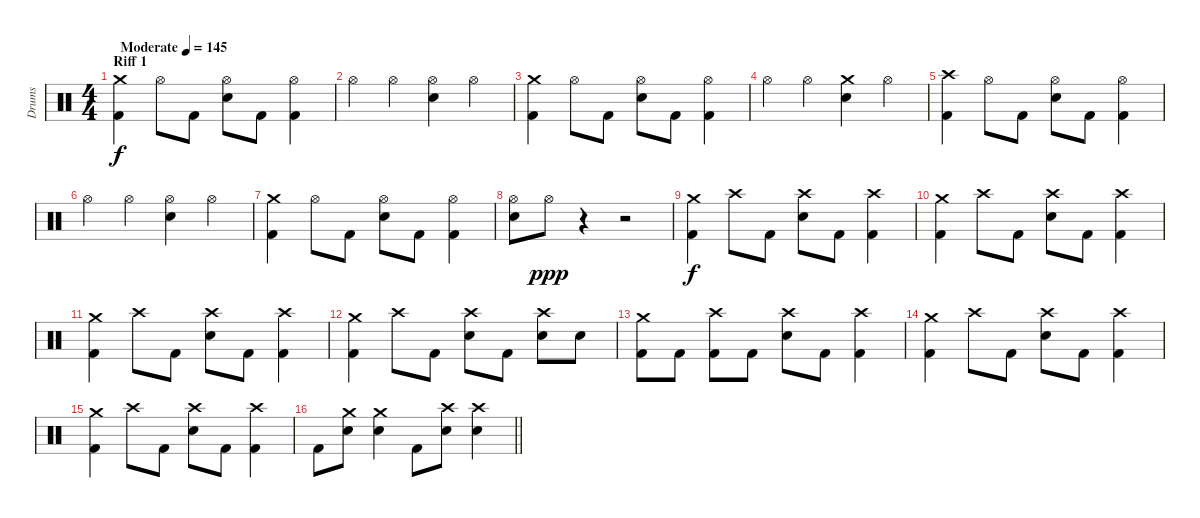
\track ("Drums" "Drums") {instrument percussion}
\staff {score}
\articulation defaults
\ts (4 4)
\section ("" "Riff 1")
\tempo (145 "Moderate")
\clef neutral
\ks c
("Crash medium (hit)" "Kick (hit) 2").4{dy f} "Hi-Hat (open)".8 "Kick (hit) 2".8 ("Hi-Hat (open)" "Electric Snare (hit)").8 "Kick (hit) 2".8 ("Hi-Hat (open)" "Kick (hit) 2").4 |
"Hi-Hat (open)".4 "Hi-Hat (open)".4 ("Electric Snare (hit)" "Hi-Hat (open)").4 "Hi-Hat (open)".4 |
("Crash medium (hit)" "Kick (hit) 2").4 "Hi-Hat (open)".8 "Kick (hit) 2".8 ("Hi-Hat (open)" "Electric Snare (hit)").8 "Kick (hit) 2".8 ("Hi-Hat (open)" "Kick (hit) 2").4 |
"Hi-Hat (open)".4 "Hi-Hat (open)".4 ("Electric Snare (hit)" "Crash medium (hit)").4 "Hi-Hat (open)".4 |
("Crash high (hit)" "Kick (hit) 2").4 "Hi-Hat (open)".8 "Kick (hit) 2".8 ("Hi-Hat (open)" "Electric Snare (hit)").8 "Kick (hit) 2".8 ("Hi-Hat (open)" "Kick (hit) 2").4 |
"Hi-Hat (open)".4 "Hi-Hat (open)".4 ("Electric Snare (hit)" "Hi-Hat (open)").4 "Hi-Hat (open)".4 |
("Crash medium (hit)" "Kick (hit) 2").4 "Hi-Hat (open)".8 "Kick (hit) 2".8 ("Hi-Hat (open)" "Electric Snare (hit)").8 "Kick (hit) 2".8 ("Hi-Hat (open)" "Kick (hit) 2").4 |
("Hi-Hat (open)" "Electric Snare (hit)").8 "Hi-Hat (open)".8{dy ppp} r.4 r.2 |
("Crash medium (hit)" "Kick (hit) 2").4{dy f} "Crash high (hit)".8 "Kick (hit) 2".8 ("Crash high (hit)" "Electric Snare (hit)").8 "Kick (hit) 2".8 ("Kick (hit) 2" "Crash high (hit)").4 |
("Crash medium (hit)" "Kick (hit) 2").4 "Crash high (hit)".8 "Kick (hit) 2".8 ("Crash high (hit)" "Electric Snare (hit)").8 "Kick (hit) 2".8 ("Kick (hit) 2" "Crash high (hit)").4 |
("Crash medium (hit)" "Kick (hit) 2").4 "Crash high (hit)".8 "Kick (hit) 2".8 ("Crash high (hit)" "Electric Snare (hit)").8 "Kick (hit) 2".8 ("Kick (hit) 2" "Crash high (hit)").4 |
("Crash medium (hit)" "Kick (hit) 2").4 "Crash high (hit)".8 "Kick (hit) 2".8 ("Crash high (hit)" "Electric Snare (hit)").8 "Kick (hit) 2".8 ("Electric Snare (hit)" "Crash high (hit)").8 "Electric Snare (hit)".8 |
("Crash medium (hit)" "Kick (hit) 2").8 "Kick (hit) 2".8 ("Crash high (hit)" "Kick (hit) 2").8 "Kick (hit) 2".8 ("Crash high (hit)" "Electric Snare (hit)").8 "Kick (hit) 2".8 ("Crash high (hit)" "Kick (hit) 2").4 |
("Crash medium (hit)" "Kick (hit) 2").4 "Crash high (hit)".8 "Kick (hit) 2".8 ("Crash high (hit)" "Electric Snare (hit)").8 "Kick (hit) 2".8 ("Kick (hit) 2" "Crash high (hit)").4 |
("Crash medium (hit)" "Kick (hit) 2").4 "Crash high (hit)".8 "Kick (hit) 2".8 ("Crash high (hit)" "Electric Snare (hit)").8 "Kick (hit) 2".8 ("Kick (hit) 2" "Crash high (hit)").4 |
\barLineRight lightlight "Kick (hit) 2".8
("Crash medium (hit)" "Electric Snare (hit)").8 ("Crash medium (hit)" "Electric Snare (hit)").4 "Kick (hit) 2".8 ("Crash high (hit)" "Electric Snare (hit)").8 ("Crash high (hit)" "Electric Snare (hit)").4
